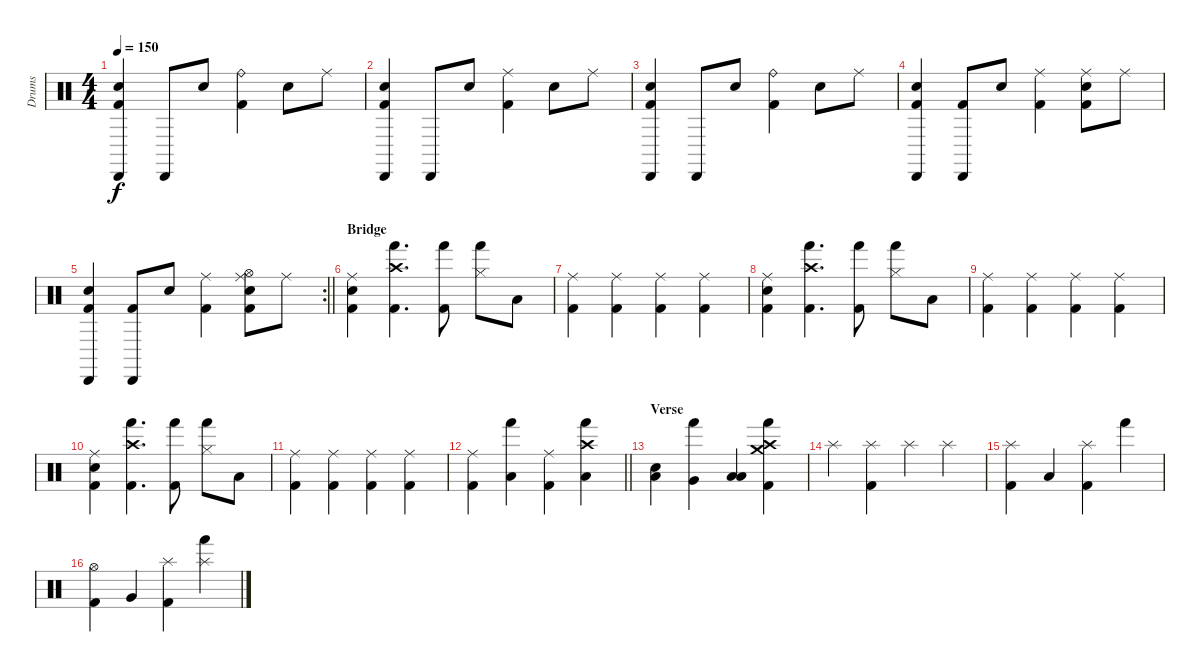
\track ("Drums" "Drums") {instrument percussion}
\staff {score}
\articulation defaults
\ts (4 4)
\tempo 150
\clef neutral
\ks c
("Cabasa (hit)" "Electric Snare (hit)" "Kick (hit) 2").4{dy f} "Cabasa (hit)".8 "Electric Snare (hit)".8 ("Ride (bell)" "Kick (hit) 2").4 "Electric Snare (hit)".8 "Ride (middle)".8 |
("Cabasa (hit)" "Electric Snare (hit)" "Kick (hit) 2").4 "Cabasa (hit)".8 "Electric Snare (hit)".8 ("Ride (middle)" "Kick (hit) 2").4 "Electric Snare (hit)".8 "Ride (middle)".8 |
("Cabasa (hit)" "Electric Snare (hit)" "Kick (hit) 2").4 "Cabasa (hit)".8 "Electric Snare (hit)".8 ("Ride (bell)" "Kick (hit) 2").4 "Electric Snare (hit)".8 "Ride (middle)".8 |
("Cabasa (hit)" "Electric Snare (hit)" "Kick (hit) 2").4 ("Cabasa (hit)" "Kick (hit) 2").8 "Electric Snare (hit)".8 ("Ride (middle)" "Kick (hit) 2").4 ("Ride (middle)" "Electric Snare (hit)" "Kick (hit) 2").8 "Ride (middle)".8 |
\rc 2
\barLineRight lightlight
("Cabasa (hit)" "Electric Snare (hit)" "Kick (hit) 2").4 ("Cabasa (hit)" "Kick (hit) 2").8 "Electric Snare (hit)".8 ("Ride (middle)" "Kick (hit) 2").4 ("Ride (middle)" "Electric Snare (hit)" "Hi-Hat (open)" "Kick (hit) 2").8 "Ride (middle)".8 |
\section ("" "Bridge")
("Ride (middle)" "Kick (hit) 2" "Electric Snare (hit)").4 ("Hand (hit)" "Kick (hit) 2" "Crash high (hit)").4{d} ("Hand (hit)" "Kick (hit) 2").8 ("Hand (hit)" "Hi-Hat (closed)").8 "Low Floor Tom (hit)".8 |
("Ride (middle)" "Kick (hit) 2").4 ("Ride (middle)" "Kick (hit) 2").4 ("Ride (middle)" "Kick (hit) 2").4 ("Ride (middle)" "Kick (hit) 2").4 |
("Ride (middle)" "Kick (hit) 2" "Electric Snare (hit)").4 ("Hand (hit)" "Kick (hit) 2" "Crash high (hit)").4{d} ("Hand (hit)" "Kick (hit) 2").8 ("Hand (hit)" "Hi-Hat (closed)").8 "Low Floor Tom (hit)".8 |
("Ride (middle)" "Kick (hit) 2").4 ("Ride (middle)" "Kick (hit) 2").4 ("Ride (middle)" "Kick (hit) 2").4 ("Ride (middle)" "Kick (hit) 2").4 |
("Ride (middle)" "Kick (hit) 2" "Electric Snare (hit)").4 ("Hand (hit)" "Kick (hit) 2" "Crash high (hit)").4{d} ("Hand (hit)" "Kick (hit) 2").8 ("Hand (hit)" "Hi-Hat (closed)").8 "Low Floor Tom (hit)".8 |
("Ride (middle)" "Kick (hit) 2").4 ("Ride (middle)" "Kick (hit) 2").4 ("Ride (middle)" "Kick (hit) 2").4 ("Ride (middle)" "Kick (hit) 2").4 |
\barLineRight lightlight
("Ride (middle)" "Kick (hit) 2").4 ("Hand (hit)" "Low Floor Tom (hit)").4 ("Ride (middle)" "Kick (hit) 2").4 ("Hand (hit)" "Crash high (hit)" "Low Floor Tom (hit)").4 |
\section ("" "Verse")
("Low Floor Tom (hit)" "Electric Snare (hit)").4 ("Very Low Tom (hit)" "Hand (hit)").4 ("Low Tom (hit)" "Low Floor Tom (hit)").4 ("Crash high (hit)" "Crash medium (hit)" "Kick (hit) 2" "Hand (hit)").4 |
"Splash (hit)".4 ("Splash (hit)" "Kick (hit) 2").4 "Splash (hit)".4 "Splash (hit)".4 |
("Splash (hit)" "Kick (hit) 2").4 "Low Floor Tom (hit)".4 ("Splash (hit)" "Kick (hit) 2").4 "Hand (hit)".4 |
("Hi-Hat (open)" "Kick (hit) 2").4 "Very Low Tom (hit)".4 ("Splash (hit)" "Kick (hit) 2").4 ("Splash (hit)" "Hand (hit)").4
